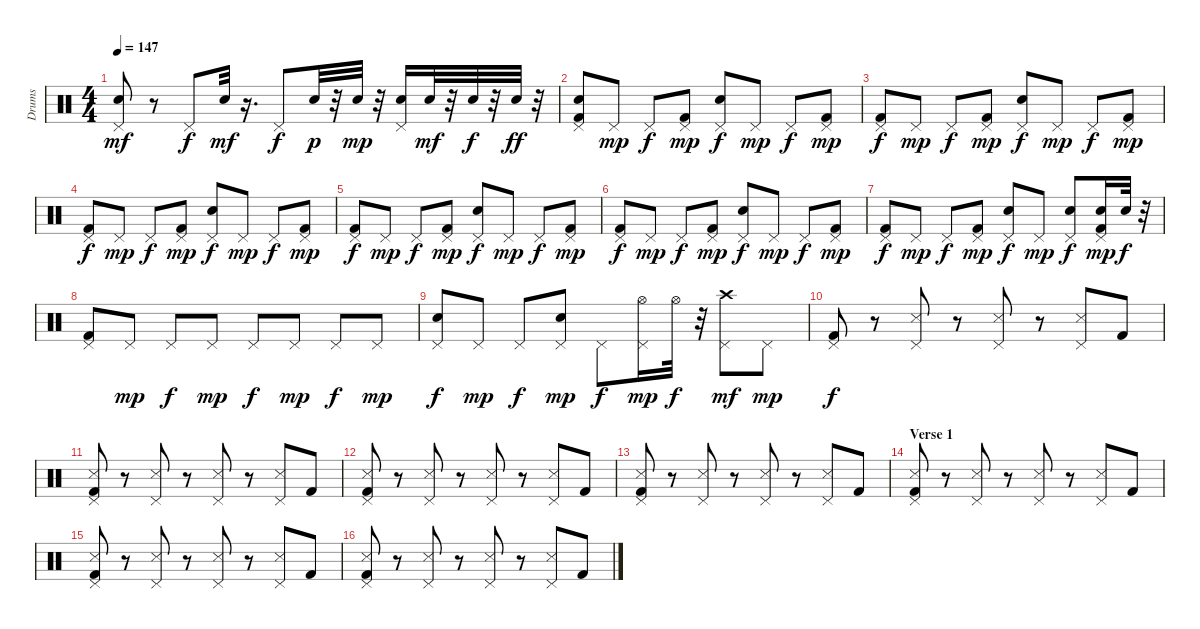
\track ("Drums" "Drums") {instrument percussion}
\staff {score}
\articulation defaults
\ts (4 4)
\tempo 147
\clef neutral
\ks c
("Pedal Hi-Hat (hit)" "Snare (hit) 2").8{dy mf} r.8 "Pedal Hi-Hat (hit)".8{dy f} "Snare (hit) 2".32{dy mf} r.16{d} "Pedal Hi-Hat (hit)".8{dy f} "Snare (hit) 2".32{dy p} r.32 "Snare (hit) 2".32{dy mp} r.32 ("Pedal Hi-Hat (hit)" "Snare (hit) 2").16 "Snare (hit) 2".32{dy mf} r.32 "Snare (hit) 2".32{dy f} r.32 "Snare (hit) 2".32{dy ff} r.32 |
("Pedal Hi-Hat (hit)" "Kick (hit) 2" "Snare (hit) 2").8 "Pedal Hi-Hat (hit)".8{dy mp} "Pedal Hi-Hat (hit)".8{dy f} ("Pedal Hi-Hat (hit)" "Kick (hit) 2").8{dy mp} ("Pedal Hi-Hat (hit)" "Snare (hit) 2").8{dy f} "Pedal Hi-Hat (hit)".8{dy mp} "Pedal Hi-Hat (hit)".8{dy f} ("Pedal Hi-Hat (hit)" "Kick (hit) 2").8{dy mp} |
("Pedal Hi-Hat (hit)" "Kick (hit) 2").8{dy f} "Pedal Hi-Hat (hit)".8{dy mp} "Pedal Hi-Hat (hit)".8{dy f} ("Pedal Hi-Hat (hit)" "Kick (hit) 2").8{dy mp} ("Pedal Hi-Hat (hit)" "Snare (hit) 2").8{dy f} "Pedal Hi-Hat (hit)".8{dy mp} "Pedal Hi-Hat (hit)".8{dy f} ("Pedal Hi-Hat (hit)" "Kick (hit) 2").8{dy mp} |
("Pedal Hi-Hat (hit)" "Kick (hit) 2").8{dy f} "Pedal Hi-Hat (hit)".8{dy mp} "Pedal Hi-Hat (hit)".8{dy f} ("Pedal Hi-Hat (hit)" "Kick (hit) 2").8{dy mp} ("Pedal Hi-Hat (hit)" "Snare (hit) 2").8{dy f} "Pedal Hi-Hat (hit)".8{dy mp} "Pedal Hi-Hat (hit)".8{dy f} ("Pedal Hi-Hat (hit)" "Kick (hit) 2").8{dy mp} |
("Pedal Hi-Hat (hit)" "Kick (hit) 2").8{dy f} "Pedal Hi-Hat (hit)".8{dy mp} "Pedal Hi-Hat (hit)".8{dy f} ("Pedal Hi-Hat (hit)" "Kick (hit) 2").8{dy mp} ("Pedal Hi-Hat (hit)" "Snare (hit) 2").8{dy f} "Pedal Hi-Hat (hit)".8{dy mp} "Pedal Hi-Hat (hit)".8{dy f} ("Pedal Hi-Hat (hit)" "Kick (hit) 2").8{dy mp} |
("Pedal Hi-Hat (hit)" "Kick (hit) 2").8{dy f} "Pedal Hi-Hat (hit)".8{dy mp} "Pedal Hi-Hat (hit)".8{dy f} ("Pedal Hi-Hat (hit)" "Kick (hit) 2").8{dy mp} ("Pedal Hi-Hat (hit)" "Snare (hit) 2").8{dy f} "Pedal Hi-Hat (hit)".8{dy mp} "Pedal Hi-Hat (hit)".8{dy f} ("Pedal Hi-Hat (hit)" "Kick (hit) 2").8{dy mp} |
("Pedal Hi-Hat (hit)" "Kick (hit) 2").8{dy f} "Pedal Hi-Hat (hit)".8{dy mp} "Pedal Hi-Hat (hit)".8{dy f} ("Pedal Hi-Hat (hit)" "Kick (hit) 2").8{dy mp} ("Pedal Hi-Hat (hit)" "Snare (hit) 2").8{dy f} "Pedal Hi-Hat (hit)".8{dy mp} ("Pedal Hi-Hat (hit)" "Snare (hit) 2").8{dy f} ("Pedal Hi-Hat (hit)" "Snare (hit) 2" "Kick (hit) 2").16{dy mp} "Snare (hit) 2".32{dy f} r.32 |
("Pedal Hi-Hat (hit)" "Kick (hit) 2").8 "Pedal Hi-Hat (hit)".8{dy mp} "Pedal Hi-Hat (hit)".8{dy f} "Pedal Hi-Hat (hit)".8{dy mp} "Pedal Hi-Hat (hit)".8{dy f} "Pedal Hi-Hat (hit)".8{dy mp} "Pedal Hi-Hat (hit)".8{dy f} "Pedal Hi-Hat (hit)".8{dy mp} |
("Pedal Hi-Hat (hit)" "Snare (hit) 2").8{dy f} "Pedal Hi-Hat (hit)".8{dy mp} "Pedal Hi-Hat (hit)".8{dy f} ("Pedal Hi-Hat (hit)" "Snare (hit) 2").8{dy mp} "Pedal Hi-Hat (hit)".8{dy f} ("Pedal Hi-Hat (hit)" "Hi-Hat (open)").16{dy mp} "Hi-Hat (open)".32{dy f} r.32 ("Pedal Hi-Hat (hit)" "Crash high (hit)").8{dy mf} "Pedal Hi-Hat (hit)".8{dy mp} |
("Pedal Hi-Hat (hit)" "Kick (hit) 2").8{dy f} r.8 ("Pedal Hi-Hat (hit)" "Snare (side stick) 3").8 r.8 ("Pedal Hi-Hat (hit)" "Snare (side stick) 3").8 r.8 ("Pedal Hi-Hat (hit)" "Snare (side stick) 3").8 "Kick (hit) 2".8 |
("Pedal Hi-Hat (hit)" "Kick (hit) 2" "Snare (side stick) 3").8 r.8 ("Pedal Hi-Hat (hit)" "Snare (side stick) 3").8 r.8 ("Pedal Hi-Hat (hit)" "Snare (side stick) 3").8 r.8 ("Pedal Hi-Hat (hit)" "Snare (side stick) 3").8 "Kick (hit) 2".8 |
("Pedal Hi-Hat (hit)" "Kick (hit) 2" "Snare (side stick) 3").8 r.8 ("Pedal Hi-Hat (hit)" "Snare (side stick) 3").8 r.8 ("Pedal Hi-Hat (hit)" "Snare (side stick) 3").8 r.8 ("Pedal Hi-Hat (hit)" "Snare (side stick) 3").8 "Kick (hit) 2".8 |
("Pedal Hi-Hat (hit)" "Kick (hit) 2" "Snare (side stick) 3").8 r.8 ("Pedal Hi-Hat (hit)" "Snare (side stick) 3").8 r.8 ("Pedal Hi-Hat (hit)" "Snare (side stick) 3").8 r.8 ("Pedal Hi-Hat (hit)" "Snare (side stick) 3").8 "Kick (hit) 2".8 |
\section ("" "Verse 1")
("Pedal Hi-Hat (hit)" "Kick (hit) 2" "Snare (side stick) 3").8 r.8 ("Pedal Hi-Hat (hit)" "Snare (side stick) 3").8 r.8 ("Pedal Hi-Hat (hit)" "Snare (side stick) 3").8 r.8 ("Pedal Hi-Hat (hit)" "Snare (side stick) 3").8 "Kick (hit) 2".8 |
("Pedal Hi-Hat (hit)" "Kick (hit) 2" "Snare (side stick) 3").8 r.8 ("Pedal Hi-Hat (hit)" "Snare (side stick) 3").8 r.8 ("Pedal Hi-Hat (hit)" "Snare (side stick) 3").8 r.8 ("Pedal Hi-Hat (hit)" "Snare (side stick) 3").8 "Kick (hit) 2".8 |
("Pedal Hi-Hat (hit)" "Kick (hit) 2" "Snare (side stick) 3").8 r.8 ("Pedal Hi-Hat (hit)" "Snare (side stick) 3").8 r.8 ("Pedal Hi-Hat (hit)" "Snare (side stick) 3").8 r.8 ("Pedal Hi-Hat (hit)" "Snare (side stick) 3").8 "Kick (hit) 2".8
